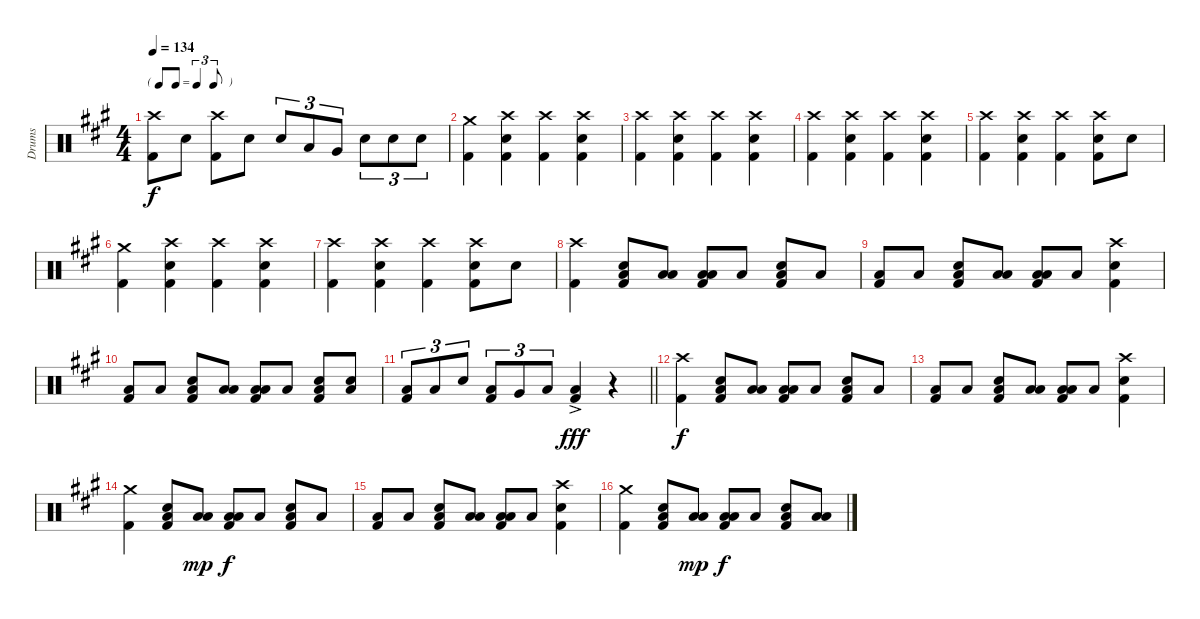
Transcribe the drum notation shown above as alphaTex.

\track ("Drums" "Drums") {instrument percussion}
\staff {score}
\articulation defaults
\ts (4 4)
\tf triplet8th
\tempo 134
\clef neutral
\ks f#minor
("Crash high (hit)" "Kick (hit) 2").8{dy f} "Electric Snare (hit)".8 ("Crash high (hit)" "Kick (hit) 2").8 "Electric Snare (hit)".8 "Electric Snare (hit)".8{tu (3 2)} "Low Tom (hit)".8{tu (3 2)} "Very Low Tom (hit)".8{tu (3 2)} "Electric Snare (hit)".8{tu (3 2)} "Electric Snare (hit)".8{tu (3 2)} "Electric Snare (hit)".8{tu (3 2)} |
("Crash medium (hit)" "Kick (hit) 2").4 ("Crash high (hit)" "Electric Snare (hit)" "Kick (hit) 2").4 ("Crash high (hit)" "Kick (hit) 2").4 ("Crash high (hit)" "Electric Snare (hit)" "Kick (hit) 2").4 |
("Crash high (hit)" "Kick (hit) 2").4 ("Crash high (hit)" "Electric Snare (hit)" "Kick (hit) 2").4 ("Crash high (hit)" "Kick (hit) 2").4 ("Crash high (hit)" "Electric Snare (hit)" "Kick (hit) 2").4 |
("Crash high (hit)" "Kick (hit) 2").4 ("Crash high (hit)" "Electric Snare (hit)" "Kick (hit) 2").4 ("Crash high (hit)" "Kick (hit) 2").4 ("Crash high (hit)" "Electric Snare (hit)" "Kick (hit) 2").4 |
("Crash high (hit)" "Kick (hit) 2").4 ("Crash high (hit)" "Electric Snare (hit)" "Kick (hit) 2").4 ("Crash high (hit)" "Kick (hit) 2").4 ("Crash high (hit)" "Electric Snare (hit)" "Kick (hit) 2").8 "Electric Snare (hit)".8 |
("Crash medium (hit)" "Kick (hit) 2").4 ("Crash high (hit)" "Electric Snare (hit)" "Kick (hit) 2").4 ("Crash high (hit)" "Kick (hit) 2").4 ("Crash high (hit)" "Electric Snare (hit)" "Kick (hit) 2").4 |
("Crash high (hit)" "Kick (hit) 2").4 ("Crash high (hit)" "Electric Snare (hit)" "Kick (hit) 2").4 ("Crash high (hit)" "Kick (hit) 2").4 ("Crash high (hit)" "Electric Snare (hit)" "Kick (hit) 2").8 "Electric Snare (hit)".8 |
("Crash high (hit)" "Kick (hit) 2").4 ("Electric Snare (hit)" "Low Floor Tom (hit)" "Kick (hit) 2").8 ("Low Tom (hit)" "Low Floor Tom (hit)").8 ("Low Tom (hit)" "Low Floor Tom (hit)" "Kick (hit) 2").8 "Low Floor Tom (hit)".8 ("Electric Snare (hit)" "Low Floor Tom (hit)" "Kick (hit) 2").8 "Low Floor Tom (hit)".8 |
("Low Floor Tom (hit)" "Kick (hit) 2").8 "Low Floor Tom (hit)".8 ("Electric Snare (hit)" "Low Floor Tom (hit)" "Kick (hit) 2").8 ("Low Tom (hit)" "Low Floor Tom (hit)").8 ("Low Tom (hit)" "Low Floor Tom (hit)" "Kick (hit) 2").8 "Low Floor Tom (hit)".8 ("Crash high (hit)" "Electric Snare (hit)" "Kick (hit) 2").4 |
("Low Floor Tom (hit)" "Kick (hit) 2").8 "Low Floor Tom (hit)".8 ("Electric Snare (hit)" "Low Floor Tom (hit)" "Kick (hit) 2").8 ("Low Tom (hit)" "Low Floor Tom (hit)").8 ("Low Tom (hit)" "Low Floor Tom (hit)" "Kick (hit) 2").8 "Low Floor Tom (hit)".8 ("Electric Snare (hit)" "Low Floor Tom (hit)" "Kick (hit) 2").8 ("Electric Snare (hit)" "Low Floor Tom (hit)").8 |
\barLineRight lightlight
("Low Floor Tom (hit)" "Kick (hit) 2").8{tu (3 2)} "Low Floor Tom (hit)".8{tu (3 2)} "Electric Snare (hit)".8{tu (3 2)} ("Low Tom (hit)" "Kick (hit) 2").8{tu (3 2)} "Very Low Tom (hit)".8{tu (3 2)} "Low Floor Tom (hit)".8{tu (3 2)} ("Low Floor Tom (hit)"{ac} "Kick (hit) 2").4{dy fff} r.4 |
("Crash high (hit)" "Kick (hit) 2").4{dy f} ("Electric Snare (hit)" "Low Floor Tom (hit)" "Kick (hit) 2").8 ("Low Tom (hit)" "Low Floor Tom (hit)").8 ("Low Tom (hit)" "Low Floor Tom (hit)" "Kick (hit) 2").8 "Low Floor Tom (hit)".8 ("Electric Snare (hit)" "Low Floor Tom (hit)" "Kick (hit) 2").8 "Low Floor Tom (hit)".8 |
("Low Floor Tom (hit)" "Kick (hit) 2").8 "Low Floor Tom (hit)".8 ("Electric Snare (hit)" "Low Floor Tom (hit)" "Kick (hit) 2").8 ("Low Tom (hit)" "Low Floor Tom (hit)").8 ("Low Tom (hit)" "Low Floor Tom (hit)" "Kick (hit) 2").8 "Low Floor Tom (hit)".8 ("Crash high (hit)" "Electric Snare (hit)" "Kick (hit) 2").4 |
("Crash medium (hit)" "Kick (hit) 2").4 ("Electric Snare (hit)" "Low Floor Tom (hit)" "Kick (hit) 2").8 ("Low Tom (hit)" "Low Floor Tom (hit)").8{dy mp} ("Low Tom (hit)" "Low Floor Tom (hit)" "Kick (hit) 2").8{dy f} "Low Floor Tom (hit)".8 ("Electric Snare (hit)" "Low Floor Tom (hit)" "Kick (hit) 2").8 "Low Floor Tom (hit)".8 |
("Low Floor Tom (hit)" "Kick (hit) 2").8 "Low Floor Tom (hit)".8 ("Electric Snare (hit)" "Low Floor Tom (hit)" "Kick (hit) 2").8 ("Low Tom (hit)" "Low Floor Tom (hit)").8 ("Low Tom (hit)" "Low Floor Tom (hit)" "Kick (hit) 2").8 "Low Floor Tom (hit)".8 ("Crash high (hit)" "Electric Snare (hit)" "Kick (hit) 2").4 |
("Crash medium (hit)" "Kick (hit) 2").4 ("Electric Snare (hit)" "Low Floor Tom (hit)" "Kick (hit) 2").8 ("Low Tom (hit)" "Low Floor Tom (hit)").8{dy mp} ("Low Tom (hit)" "Low Floor Tom (hit)" "Kick (hit) 2").8{dy f} "Low Floor Tom (hit)".8 ("Electric Snare (hit)" "Low Floor Tom (hit)" "Kick (hit) 2").8 ("Low Tom (hit)" "Low Floor Tom (hit)").8
